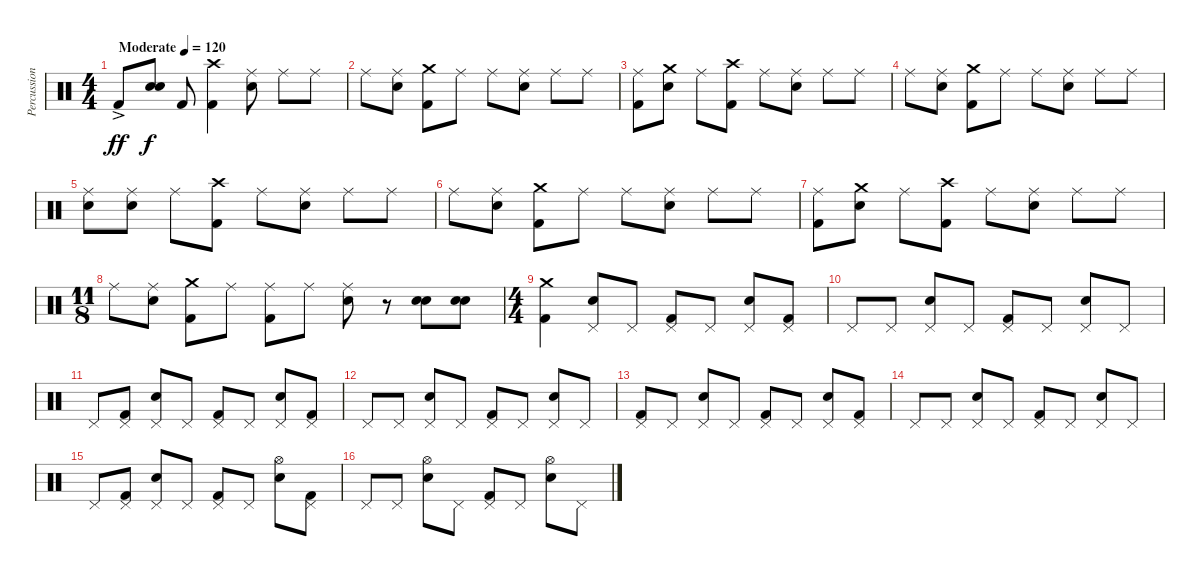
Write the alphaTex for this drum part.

\track ("Percussion" "Percussion") {instrument percussion}
\staff {score}
\articulation defaults
\ts (4 4)
\tempo (120 "Moderate")
\clef neutral
\ks c "Kick (hit) 2"{ac}.8{dy ff}
("Electric Snare (hit)" "Electric Snare (hit)").8{dy f} "Kick (hit) 2".8 ("Crash high (hit)" "Kick (hit) 2").4 ("Ride (middle)" "Electric Snare (hit)").8 "Ride (middle)".8 "Ride (middle)".8 |
"Ride (middle)".8 ("Ride (middle)" "Electric Snare (hit)").8 ("Crash medium (hit)" "Kick (hit) 2").8 "Ride (middle)".8 "Ride (middle)".8 ("Ride (middle)" "Electric Snare (hit)").8 "Ride (middle)".8 "Ride (middle)".8 |
("Ride (middle)" "Kick (hit) 2").8 ("Crash medium (hit)" "Electric Snare (hit)").8 "Ride (middle)".8 ("Crash high (hit)" "Kick (hit) 2").8 "Ride (middle)".8 ("Ride (middle)" "Electric Snare (hit)").8 "Ride (middle)".8 "Ride (middle)".8 |
"Ride (middle)".8 ("Ride (middle)" "Electric Snare (hit)").8 ("Crash medium (hit)" "Kick (hit) 2").8 "Ride (middle)".8 "Ride (middle)".8 ("Ride (middle)" "Electric Snare (hit)").8 "Ride (middle)".8 "Ride (middle)".8 |
("Ride (middle)" "Electric Snare (hit)").8 ("Ride (middle)" "Electric Snare (hit)").8 "Ride (middle)".8 ("Crash high (hit)" "Kick (hit) 2").8 "Ride (middle)".8 ("Ride (middle)" "Electric Snare (hit)").8 "Ride (middle)".8 "Ride (middle)".8 |
"Ride (middle)".8 ("Ride (middle)" "Electric Snare (hit)").8 ("Crash medium (hit)" "Kick (hit) 2").8 "Ride (middle)".8 "Ride (middle)".8 ("Ride (middle)" "Electric Snare (hit)").8 "Ride (middle)".8 "Ride (middle)".8 |
("Ride (middle)" "Kick (hit) 2").8 ("Crash medium (hit)" "Electric Snare (hit)").8 "Ride (middle)".8 ("Crash high (hit)" "Kick (hit) 2").8 "Ride (middle)".8 ("Ride (middle)" "Electric Snare (hit)").8 "Ride (middle)".8 "Ride (middle)".8 |
\ts (11 8)
"Ride (middle)".8 ("Ride (middle)" "Electric Snare (hit)").8 ("Crash medium (hit)" "Kick (hit) 2").8 "Ride (middle)".8 ("Ride (middle)" "Kick (hit) 2").8 "Ride (middle)".8 ("Ride (middle)" "Electric Snare (hit)").8 r.8 ("Electric Snare (hit)" "Electric Snare (hit)").8 ("Electric Snare (hit)" "Electric Snare (hit)").8 |
\ts (4 4)
("Crash medium (hit)" "Kick (hit) 2").4 ("Pedal Hi-Hat (hit)" "Electric Snare (hit)").8 "Pedal Hi-Hat (hit)".8 ("Pedal Hi-Hat (hit)" "Kick (hit) 2").8 "Pedal Hi-Hat (hit)".8 ("Pedal Hi-Hat (hit)" "Electric Snare (hit)").8 ("Pedal Hi-Hat (hit)" "Kick (hit) 2").8 |
"Pedal Hi-Hat (hit)".8 "Pedal Hi-Hat (hit)".8 ("Pedal Hi-Hat (hit)" "Electric Snare (hit)").8 "Pedal Hi-Hat (hit)".8 ("Pedal Hi-Hat (hit)" "Kick (hit) 2").8 "Pedal Hi-Hat (hit)".8 ("Pedal Hi-Hat (hit)" "Electric Snare (hit)").8 "Pedal Hi-Hat (hit)".8 |
"Pedal Hi-Hat (hit)".8 ("Pedal Hi-Hat (hit)" "Kick (hit) 2").8 ("Pedal Hi-Hat (hit)" "Electric Snare (hit)").8 "Pedal Hi-Hat (hit)".8 ("Pedal Hi-Hat (hit)" "Kick (hit) 2").8 "Pedal Hi-Hat (hit)".8 ("Pedal Hi-Hat (hit)" "Electric Snare (hit)").8 ("Pedal Hi-Hat (hit)" "Kick (hit) 2").8 |
"Pedal Hi-Hat (hit)".8 "Pedal Hi-Hat (hit)".8 ("Pedal Hi-Hat (hit)" "Electric Snare (hit)").8 "Pedal Hi-Hat (hit)".8 ("Pedal Hi-Hat (hit)" "Kick (hit) 2").8 "Pedal Hi-Hat (hit)".8 ("Pedal Hi-Hat (hit)" "Electric Snare (hit)").8 "Pedal Hi-Hat (hit)".8 |
("Pedal Hi-Hat (hit)" "Kick (hit) 2").8 "Pedal Hi-Hat (hit)".8 ("Pedal Hi-Hat (hit)" "Electric Snare (hit)").8 "Pedal Hi-Hat (hit)".8 ("Pedal Hi-Hat (hit)" "Kick (hit) 2").8 "Pedal Hi-Hat (hit)".8 ("Pedal Hi-Hat (hit)" "Electric Snare (hit)").8 ("Pedal Hi-Hat (hit)" "Kick (hit) 2").8 |
"Pedal Hi-Hat (hit)".8 "Pedal Hi-Hat (hit)".8 ("Pedal Hi-Hat (hit)" "Electric Snare (hit)").8 "Pedal Hi-Hat (hit)".8 ("Pedal Hi-Hat (hit)" "Kick (hit) 2").8 "Pedal Hi-Hat (hit)".8 ("Pedal Hi-Hat (hit)" "Electric Snare (hit)").8 "Pedal Hi-Hat (hit)".8 |
"Pedal Hi-Hat (hit)".8 ("Pedal Hi-Hat (hit)" "Kick (hit) 2").8 ("Pedal Hi-Hat (hit)" "Electric Snare (hit)").8 "Pedal Hi-Hat (hit)".8 ("Pedal Hi-Hat (hit)" "Kick (hit) 2").8 "Pedal Hi-Hat (hit)".8 ("Hi-Hat (open)" "Electric Snare (hit)").8 ("Pedal Hi-Hat (hit)" "Kick (hit) 2").8 |
"Pedal Hi-Hat (hit)".8 "Pedal Hi-Hat (hit)".8 ("Hi-Hat (open)" "Electric Snare (hit)").8 "Pedal Hi-Hat (hit)".8 ("Pedal Hi-Hat (hit)" "Kick (hit) 2").8 "Pedal Hi-Hat (hit)".8 ("Hi-Hat (open)" "Electric Snare (hit)").8 "Pedal Hi-Hat (hit)".8
